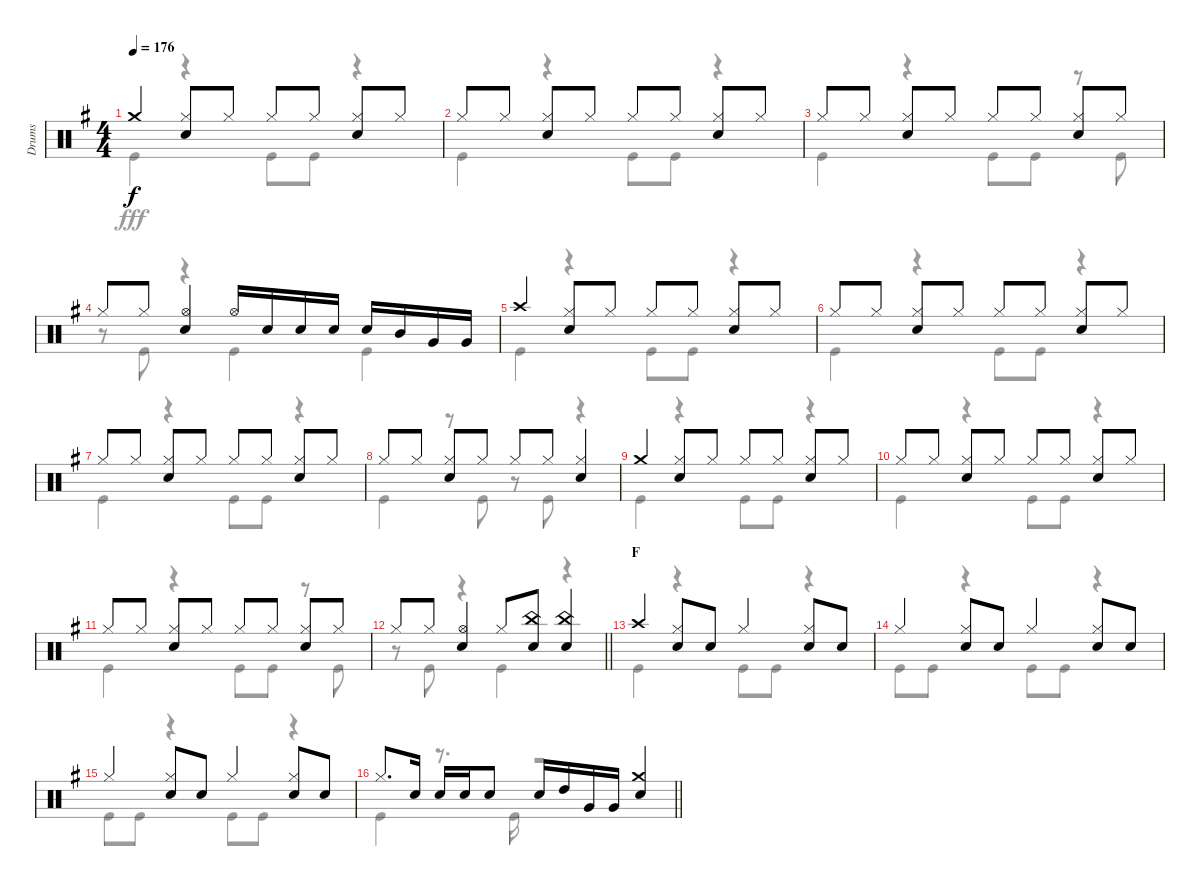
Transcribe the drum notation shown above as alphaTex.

\track ("Drums" "Drums") {instrument percussion}
\staff {score}
\articulation defaults
\voice
\ts (4 4)
\tempo 176
\clef neutral
\ks g "Crash medium (hit)".4{dy f}
("Hi-Hat (closed)" "Snare (hit) 2").8 "Hi-Hat (closed)".8 "Hi-Hat (closed)".8 "Hi-Hat (closed)".8 ("Hi-Hat (closed)" "Snare (hit) 2").8 "Hi-Hat (closed)".8 |
"Hi-Hat (closed)".8 "Hi-Hat (closed)".8 ("Hi-Hat (closed)" "Snare (hit) 2").8 "Hi-Hat (closed)".8 "Hi-Hat (closed)".8 "Hi-Hat (closed)".8 ("Hi-Hat (closed)" "Snare (hit) 2").8 "Hi-Hat (closed)".8 |
"Hi-Hat (closed)".8 "Hi-Hat (closed)".8 ("Hi-Hat (closed)" "Snare (hit) 2").8 "Hi-Hat (closed)".8 "Hi-Hat (closed)".8 "Hi-Hat (closed)".8 ("Hi-Hat (closed)" "Snare (hit) 2").8 "Hi-Hat (closed)".8 |
"Hi-Hat (closed)".8 "Hi-Hat (closed)".8 ("Hi-Hat (open)" "Snare (hit) 2").4 "Hi-Hat (open)".16 "Snare (hit) 2".16 "Snare (hit) 2".16 "Snare (hit) 2".16 "Snare (hit) 2".16 "Mid Tom (hit)".16 "Very Low Tom (hit)".16 "Very Low Tom (hit)".16 |
"Crash high (hit)".4 ("Hi-Hat (closed)" "Snare (hit) 2").8 "Hi-Hat (closed)".8 "Hi-Hat (closed)".8 "Hi-Hat (closed)".8 ("Hi-Hat (closed)" "Snare (hit) 2").8 "Hi-Hat (closed)".8 |
"Hi-Hat (closed)".8 "Hi-Hat (closed)".8 ("Hi-Hat (closed)" "Snare (hit) 2").8 "Hi-Hat (closed)".8 "Hi-Hat (closed)".8 "Hi-Hat (closed)".8 ("Hi-Hat (closed)" "Snare (hit) 2").8 "Hi-Hat (closed)".8 |
"Hi-Hat (closed)".8 "Hi-Hat (closed)".8 ("Hi-Hat (closed)" "Snare (hit) 2").8 "Hi-Hat (closed)".8 "Hi-Hat (closed)".8 "Hi-Hat (closed)".8 ("Hi-Hat (closed)" "Snare (hit) 2").8 "Hi-Hat (closed)".8 |
"Hi-Hat (closed)".8 "Hi-Hat (closed)".8 ("Hi-Hat (closed)" "Snare (hit) 2").8 "Hi-Hat (closed)".8 "Hi-Hat (closed)".8 "Hi-Hat (closed)".8 ("Hi-Hat (closed)" "Snare (hit) 2").4 |
"Crash medium (hit)".4 ("Hi-Hat (closed)" "Snare (hit) 2").8 "Hi-Hat (closed)".8 "Hi-Hat (closed)".8 "Hi-Hat (closed)".8 ("Hi-Hat (closed)" "Snare (hit) 2").8 "Hi-Hat (closed)".8 |
"Hi-Hat (closed)".8 "Hi-Hat (closed)".8 ("Hi-Hat (closed)" "Snare (hit) 2").8 "Hi-Hat (closed)".8 "Hi-Hat (closed)".8 "Hi-Hat (closed)".8 ("Hi-Hat (closed)" "Snare (hit) 2").8 "Hi-Hat (closed)".8 |
"Hi-Hat (closed)".8 "Hi-Hat (closed)".8 ("Hi-Hat (closed)" "Snare (hit) 2").8 "Hi-Hat (closed)".8 "Hi-Hat (closed)".8 "Hi-Hat (closed)".8 ("Hi-Hat (closed)" "Snare (hit) 2").8 "Hi-Hat (closed)".8 |
\barLineRight lightlight "Hi-Hat (closed)".8 "Hi-Hat (closed)".8
("Hi-Hat (open)" "Snare (hit) 2").4 "Hi-Hat (closed)".8 ("China (hit)" "Snare (hit) 2").8 ("China (hit)" "Snare (hit) 2").4 |
\section ("" "F")
"Crash high (hit)".4 ("Hi-Hat (closed)" "Snare (hit) 2").8 "Snare (hit) 2".8 "Hi-Hat (closed)".4 ("Hi-Hat (closed)" "Snare (hit) 2").8 "Snare (hit) 2".8 |
"Hi-Hat (closed)".4 ("Hi-Hat (closed)" "Snare (hit) 2").8 "Snare (hit) 2".8 "Hi-Hat (closed)".4 ("Hi-Hat (closed)" "Snare (hit) 2").8 "Snare (hit) 2".8 |
"Hi-Hat (closed)".4 ("Hi-Hat (closed)" "Snare (hit) 2").8 "Snare (hit) 2".8 "Hi-Hat (closed)".4 ("Hi-Hat (closed)" "Snare (hit) 2").8 "Snare (hit) 2".8 |
\barLineRight lightlight "Hi-Hat (closed)".8{d} "Snare (hit) 2".16 "Snare (hit) 2".16 "Snare (hit) 2".16 "Snare (hit) 2".8 "Snare (hit) 2".16 "High Tom (hit)".16 "Very Low Tom (hit)".16 "Very Low Tom (hit)".16
("Crash medium (hit)" "Snare (hit) 2").4
\voice
\clef neutral
\ottava regular
\simile none
\ks g "Kick (hit)".4{dy fff}
r.4 "Kick (hit)".8 "Kick (hit)".8 r.4 |
"Kick (hit)".4 r.4 "Kick (hit)".8 "Kick (hit)".8 r.4 |
"Kick (hit)".4 r.4 "Kick (hit)".8 "Kick (hit)".8 r.8 "Kick (hit)".8 |
r.8 "Kick (hit)".8 r.4 "Kick (hit)".4 "Kick (hit)".4 |
"Kick (hit)".4 r.4 "Kick (hit)".8 "Kick (hit)".8 r.4 |
"Kick (hit)".4 r.4 "Kick (hit)".8 "Kick (hit)".8 r.4 |
"Kick (hit)".4 r.4 "Kick (hit)".8 "Kick (hit)".8 r.4 |
"Kick (hit)".4 r.8 "Kick (hit)".8 r.8 "Kick (hit)".8 r.4 |
"Kick (hit)".4 r.4 "Kick (hit)".8 "Kick (hit)".8 r.4 |
"Kick (hit)".4 r.4 "Kick (hit)".8 "Kick (hit)".8 r.4 |
"Kick (hit)".4 r.4 "Kick (hit)".8 "Kick (hit)".8 r.8 "Kick (hit)".8 |
\barLineRight lightlight
r.8 "Kick (hit)".8 r.4 "Kick (hit)".4 r.4 |
"Kick (hit)".4 r.4 "Kick (hit)".8 "Kick (hit)".8 r.4 |
"Kick (hit)".8 "Kick (hit)".8 r.4 "Kick (hit)".8 "Kick (hit)".8 r.4 |
"Kick (hit)".8 "Kick (hit)".8 r.4 "Kick (hit)".8 "Kick (hit)".8 r.4 |
\barLineRight lightlight "Kick (hit)".4
r.8{d} "Kick (hit)".16 r.2
